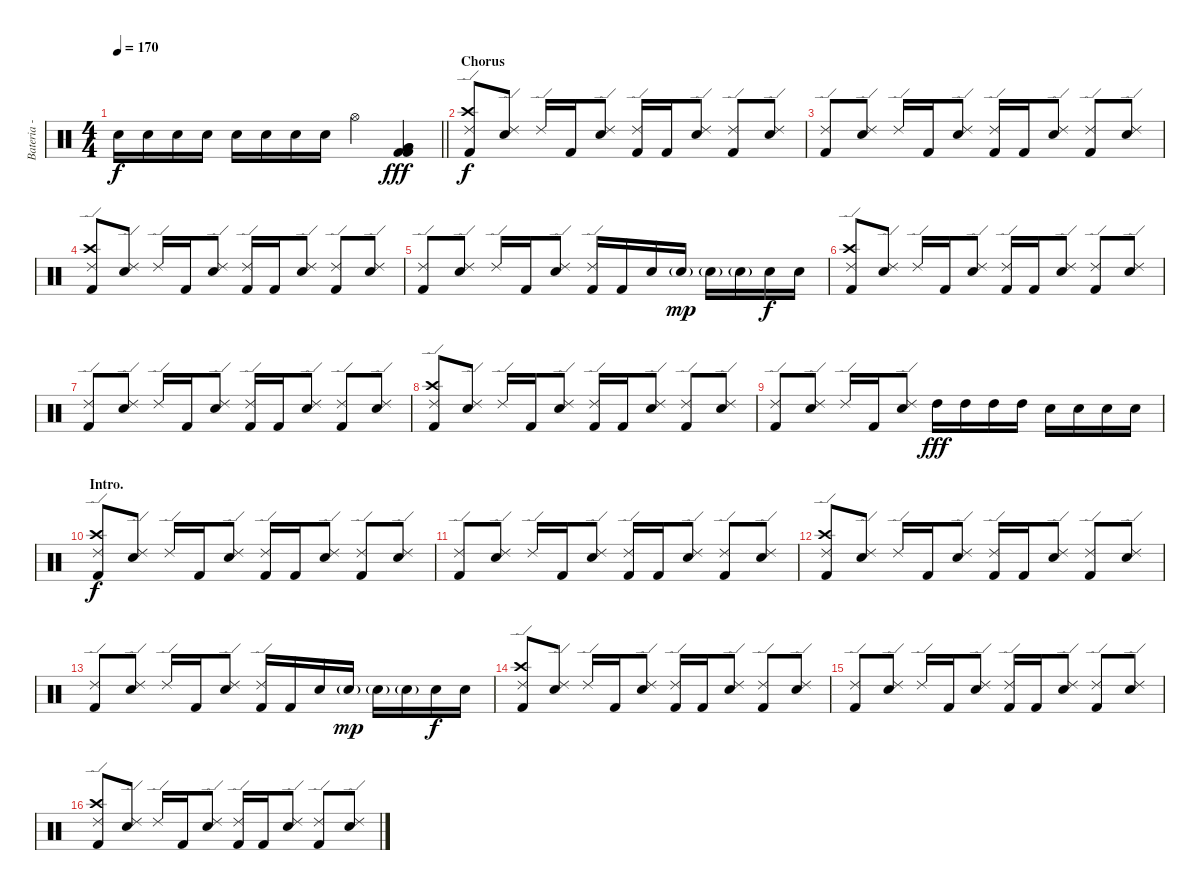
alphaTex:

\track ("Bateria - Larzon" "Bateria - ") {instrument percussion}
\staff {score}
\articulation defaults
\ts (4 4)
\tempo 170
\clef neutral
\barLineRight lightlight
\ks c "Snare (hit) 2".16{dy f} "Snare (hit) 2".16 "Snare (hit) 2".16 "Snare (hit) 2".16 "Snare (hit) 2".16 "Snare (hit) 2".16 "Snare (hit) 2".16 "Snare (hit) 2".16 "Hi-Hat (open)".4
("Kick (hit) 2" "Very Low Tom (hit)" "Very Low Tom (hit)" "Kick (hit) 2").4{dy fff} |
\section ("" "Chorus")
("Kick (hit) 2" "Crash high (hit)" "Ride (edge) 2").8{dy f} ("Snare (hit) 2" "Ride (edge) 2").8 "Ride (edge) 2".16 "Kick (hit) 2".16 ("Snare (hit) 2" "Ride (edge) 2").8 ("Kick (hit) 2" "Ride (edge) 2").16 "Kick (hit) 2".16 ("Snare (hit) 2" "Ride (edge) 2").8 ("Kick (hit) 2" "Ride (edge) 2").8 ("Snare (hit) 2" "Ride (edge) 2").8 |
("Kick (hit) 2" "Ride (edge) 2").8 ("Snare (hit) 2" "Ride (edge) 2").8 "Ride (edge) 2".16 "Kick (hit) 2".16 ("Snare (hit) 2" "Ride (edge) 2").8 ("Kick (hit) 2" "Ride (edge) 2").16 "Kick (hit) 2".16 ("Snare (hit) 2" "Ride (edge) 2").8 ("Kick (hit) 2" "Ride (edge) 2").8 ("Snare (hit) 2" "Ride (edge) 2").8 |
("Kick (hit) 2" "Crash high (hit)" "Ride (edge) 2").8 ("Snare (hit) 2" "Ride (edge) 2").8 "Ride (edge) 2".16 "Kick (hit) 2".16 ("Snare (hit) 2" "Ride (edge) 2").8 ("Kick (hit) 2" "Ride (edge) 2").16 "Kick (hit) 2".16 ("Snare (hit) 2" "Ride (edge) 2").8 ("Kick (hit) 2" "Ride (edge) 2").8 ("Snare (hit) 2" "Ride (edge) 2").8 |
("Kick (hit) 2" "Ride (edge) 2").8 ("Snare (hit) 2" "Ride (edge) 2").8 "Ride (edge) 2".16 "Kick (hit) 2".16 ("Snare (hit) 2" "Ride (edge) 2").8 ("Kick (hit) 2" "Ride (edge) 2").16 "Kick (hit) 2".16 "Snare (hit) 2".16 "Snare (hit) 2"{g}.16{dy mp} "Snare (hit) 2"{g}.16 "Snare (hit) 2"{g}.16 "Snare (hit) 2".16{dy f} "Snare (hit) 2".16 |
("Kick (hit) 2" "Crash high (hit)" "Ride (edge) 2").8 ("Snare (hit) 2" "Ride (edge) 2").8 "Ride (edge) 2".16 "Kick (hit) 2".16 ("Snare (hit) 2" "Ride (edge) 2").8 ("Kick (hit) 2" "Ride (edge) 2").16 "Kick (hit) 2".16 ("Snare (hit) 2" "Ride (edge) 2").8 ("Kick (hit) 2" "Ride (edge) 2").8 ("Snare (hit) 2" "Ride (edge) 2").8 |
("Kick (hit) 2" "Ride (edge) 2").8 ("Snare (hit) 2" "Ride (edge) 2").8 "Ride (edge) 2".16 "Kick (hit) 2".16 ("Snare (hit) 2" "Ride (edge) 2").8 ("Kick (hit) 2" "Ride (edge) 2").16 "Kick (hit) 2".16 ("Snare (hit) 2" "Ride (edge) 2").8 ("Kick (hit) 2" "Ride (edge) 2").8 ("Snare (hit) 2" "Ride (edge) 2").8 |
("Kick (hit) 2" "Crash high (hit)" "Ride (edge) 2").8 ("Snare (hit) 2" "Ride (edge) 2").8 "Ride (edge) 2".16 "Kick (hit) 2".16 ("Snare (hit) 2" "Ride (edge) 2").8 ("Kick (hit) 2" "Ride (edge) 2").16 "Kick (hit) 2".16 ("Snare (hit) 2" "Ride (edge) 2").8 ("Kick (hit) 2" "Ride (edge) 2").8 ("Snare (hit) 2" "Ride (edge) 2").8 |
("Kick (hit) 2" "Ride (edge) 2").8 ("Snare (hit) 2" "Ride (edge) 2").8 "Ride (edge) 2".16 "Kick (hit) 2".16 ("Snare (hit) 2" "Ride (edge) 2").8 "High Tom (hit)".16{dy fff} "High Tom (hit)".16 "High Tom (hit)".16 "High Tom (hit)".16 "Snare (hit) 2".16 "Snare (hit) 2".16 "Snare (hit) 2".16 "Snare (hit) 2".16 |
\section ("" "Intro.")
("Kick (hit) 2" "Crash high (hit)" "Ride (edge) 2").8{dy f} ("Snare (hit) 2" "Ride (edge) 2").8 "Ride (edge) 2".16 "Kick (hit) 2".16 ("Snare (hit) 2" "Ride (edge) 2").8 ("Kick (hit) 2" "Ride (edge) 2").16 "Kick (hit) 2".16 ("Snare (hit) 2" "Ride (edge) 2").8 ("Kick (hit) 2" "Ride (edge) 2").8 ("Snare (hit) 2" "Ride (edge) 2").8 |
("Kick (hit) 2" "Ride (edge) 2").8 ("Snare (hit) 2" "Ride (edge) 2").8 "Ride (edge) 2".16 "Kick (hit) 2".16 ("Snare (hit) 2" "Ride (edge) 2").8 ("Kick (hit) 2" "Ride (edge) 2").16 "Kick (hit) 2".16 ("Snare (hit) 2" "Ride (edge) 2").8 ("Kick (hit) 2" "Ride (edge) 2").8 ("Snare (hit) 2" "Ride (edge) 2").8 |
("Kick (hit) 2" "Crash high (hit)" "Ride (edge) 2").8 ("Snare (hit) 2" "Ride (edge) 2").8 "Ride (edge) 2".16 "Kick (hit) 2".16 ("Snare (hit) 2" "Ride (edge) 2").8 ("Kick (hit) 2" "Ride (edge) 2").16 "Kick (hit) 2".16 ("Snare (hit) 2" "Ride (edge) 2").8 ("Kick (hit) 2" "Ride (edge) 2").8 ("Snare (hit) 2" "Ride (edge) 2").8 |
("Kick (hit) 2" "Ride (edge) 2").8 ("Snare (hit) 2" "Ride (edge) 2").8 "Ride (edge) 2".16 "Kick (hit) 2".16 ("Snare (hit) 2" "Ride (edge) 2").8 ("Kick (hit) 2" "Ride (edge) 2").16 "Kick (hit) 2".16 "Snare (hit) 2".16 "Snare (hit) 2"{g}.16{dy mp} "Snare (hit) 2"{g}.16 "Snare (hit) 2"{g}.16 "Snare (hit) 2".16{dy f} "Snare (hit) 2".16 |
("Kick (hit) 2" "Crash high (hit)" "Ride (edge) 2").8 ("Snare (hit) 2" "Ride (edge) 2").8 "Ride (edge) 2".16 "Kick (hit) 2".16 ("Snare (hit) 2" "Ride (edge) 2").8 ("Kick (hit) 2" "Ride (edge) 2").16 "Kick (hit) 2".16 ("Snare (hit) 2" "Ride (edge) 2").8 ("Kick (hit) 2" "Ride (edge) 2").8 ("Snare (hit) 2" "Ride (edge) 2").8 |
("Kick (hit) 2" "Ride (edge) 2").8 ("Snare (hit) 2" "Ride (edge) 2").8 "Ride (edge) 2".16 "Kick (hit) 2".16 ("Snare (hit) 2" "Ride (edge) 2").8 ("Kick (hit) 2" "Ride (edge) 2").16 "Kick (hit) 2".16 ("Snare (hit) 2" "Ride (edge) 2").8 ("Kick (hit) 2" "Ride (edge) 2").8 ("Snare (hit) 2" "Ride (edge) 2").8 |
("Kick (hit) 2" "Crash high (hit)" "Ride (edge) 2").8 ("Snare (hit) 2" "Ride (edge) 2").8 "Ride (edge) 2".16 "Kick (hit) 2".16 ("Snare (hit) 2" "Ride (edge) 2").8 ("Kick (hit) 2" "Ride (edge) 2").16 "Kick (hit) 2".16 ("Snare (hit) 2" "Ride (edge) 2").8 ("Kick (hit) 2" "Ride (edge) 2").8 ("Snare (hit) 2" "Ride (edge) 2").8
